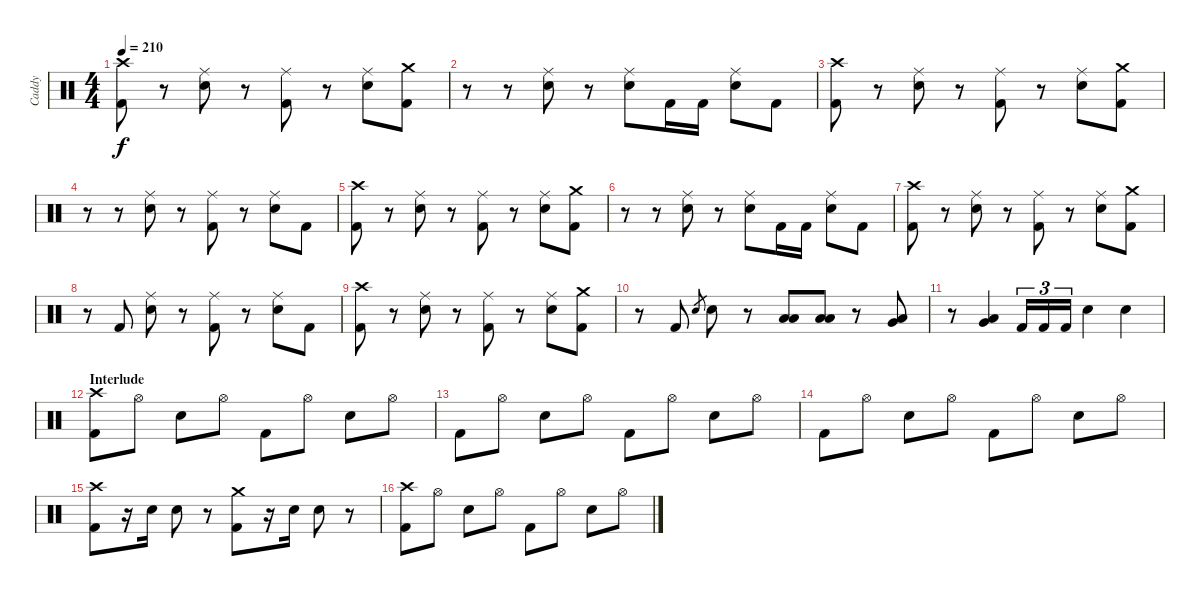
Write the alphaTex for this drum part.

\track ("Caddy" "Caddy") {instrument percussion}
\staff {score}
\articulation defaults
\ts (4 4)
\tempo 210
\clef neutral
\ks c
("Crash high (hit)" "Kick (hit) 2").8{dy f} r.8 ("Ride (middle)" "Electric Snare (hit)").8 r.8 ("Ride (middle)" "Kick (hit) 2").8 r.8 ("Ride (middle)" "Electric Snare (hit)").8 ("Crash medium (hit)" "Kick (hit) 2").8 |
r.8 r.8 ("Ride (middle)" "Electric Snare (hit)").8 r.8 ("Ride (middle)" "Electric Snare (hit)").8 "Kick (hit) 2".16 "Kick (hit) 2".16 ("Ride (middle)" "Electric Snare (hit)").8 "Kick (hit) 2".8 |
("Crash high (hit)" "Kick (hit) 2").8 r.8 ("Ride (middle)" "Electric Snare (hit)").8 r.8 ("Ride (middle)" "Kick (hit) 2").8 r.8 ("Ride (middle)" "Electric Snare (hit)").8 ("Crash medium (hit)" "Kick (hit) 2").8 |
r.8 r.8 ("Ride (middle)" "Electric Snare (hit)").8 r.8 ("Ride (middle)" "Kick (hit) 2").8 r.8 ("Ride (middle)" "Electric Snare (hit)").8 "Kick (hit) 2".8 |
("Crash high (hit)" "Kick (hit) 2").8 r.8 ("Ride (middle)" "Electric Snare (hit)").8 r.8 ("Ride (middle)" "Kick (hit) 2").8 r.8 ("Ride (middle)" "Electric Snare (hit)").8 ("Crash medium (hit)" "Kick (hit) 2").8 |
r.8 r.8 ("Ride (middle)" "Electric Snare (hit)").8 r.8 ("Ride (middle)" "Electric Snare (hit)").8 "Kick (hit) 2".16 "Kick (hit) 2".16 ("Ride (middle)" "Electric Snare (hit)").8 "Kick (hit) 2".8 |
("Crash high (hit)" "Kick (hit) 2").8 r.8 ("Ride (middle)" "Electric Snare (hit)").8 r.8 ("Ride (middle)" "Kick (hit) 2").8 r.8 ("Ride (middle)" "Electric Snare (hit)").8 ("Crash medium (hit)" "Kick (hit) 2").8 |
r.8 "Kick (hit) 2".8 ("Ride (middle)" "Electric Snare (hit)").8 r.8 ("Ride (middle)" "Kick (hit) 2").8 r.8 ("Ride (middle)" "Electric Snare (hit)").8 "Kick (hit) 2".8 |
("Crash high (hit)" "Kick (hit) 2").8 r.8 ("Ride (middle)" "Electric Snare (hit)").8 r.8 ("Ride (middle)" "Kick (hit) 2").8 r.8 ("Ride (middle)" "Electric Snare (hit)").8 ("Crash medium (hit)" "Kick (hit) 2").8 |
r.8 "Kick (hit) 2".8 "Electric Snare (hit)".8{gr} "Electric Snare (hit)".8 r.8 ("Low Tom (hit)" "Low Floor Tom (hit)").8 ("Low Tom (hit)" "Low Floor Tom (hit)").8 r.8 ("Very Low Tom (hit)" "Low Floor Tom (hit)").8 |
r.8 ("Very Low Tom (hit)" "Low Floor Tom (hit)").4 "Kick (hit) 2".16{tu (3 2)} "Kick (hit) 2".16{tu (3 2)} "Kick (hit) 2".16{tu (3 2)} "Electric Snare (hit)".4 "Electric Snare (hit)".4 |
\section ("" "Interlude")
("Crash high (hit)" "Kick (hit) 2").8 "Hi-Hat (open)".8 "Electric Snare (hit)".8 "Hi-Hat (open)".8 "Kick (hit) 2".8 "Hi-Hat (open)".8 "Electric Snare (hit)".8 "Hi-Hat (open)".8 |
"Kick (hit) 2".8 "Hi-Hat (open)".8 "Electric Snare (hit)".8 "Hi-Hat (open)".8 "Kick (hit) 2".8 "Hi-Hat (open)".8 "Electric Snare (hit)".8 "Hi-Hat (open)".8 |
"Kick (hit) 2".8 "Hi-Hat (open)".8 "Electric Snare (hit)".8 "Hi-Hat (open)".8 "Kick (hit) 2".8 "Hi-Hat (open)".8 "Electric Snare (hit)".8 "Hi-Hat (open)".8 |
("Crash high (hit)" "Kick (hit) 2").8 r.16 "Electric Snare (hit)".16 "Electric Snare (hit)".8 r.8 ("Crash medium (hit)" "Kick (hit) 2").8 r.16 "Electric Snare (hit)".16 "Electric Snare (hit)".8 r.8 |
("Crash high (hit)" "Kick (hit) 2").8 "Hi-Hat (open)".8 "Electric Snare (hit)".8 "Hi-Hat (open)".8 "Kick (hit) 2".8 "Hi-Hat (open)".8 "Electric Snare (hit)".8 "Hi-Hat (open)".8
